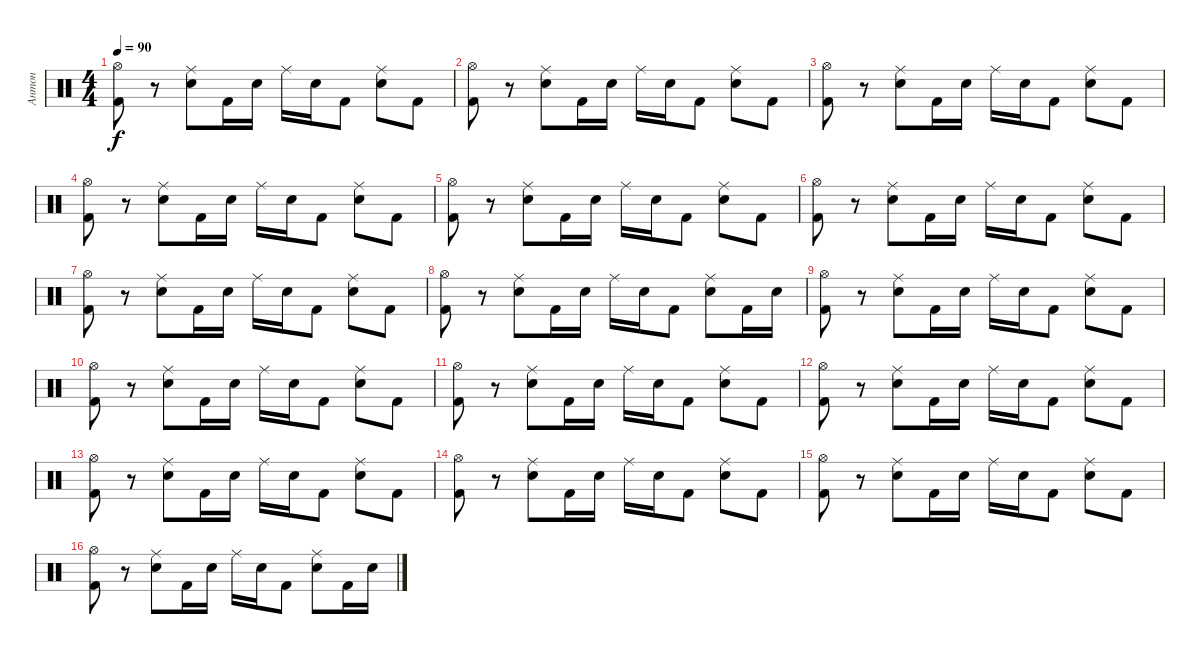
\track ("Антон" "Антон") {instrument percussion}
\staff {score}
\articulation defaults
\ts (4 4)
\tempo 90
\clef neutral
\ks c
("Hi-Hat (open)" "Kick (hit) 2").8{dy f} r.8 ("Ride (middle)" "Electric Snare (hit)").8 "Kick (hit) 2".16 "Electric Snare (hit)".16 "Ride (middle)".16 "Electric Snare (hit)".16 "Kick (hit) 2".8 ("Ride (middle)" "Electric Snare (hit)").8 "Kick (hit) 2".8 |
("Hi-Hat (open)" "Kick (hit) 2").8 r.8 ("Ride (middle)" "Electric Snare (hit)").8 "Kick (hit) 2".16 "Electric Snare (hit)".16 "Ride (middle)".16 "Electric Snare (hit)".16 "Kick (hit) 2".8 ("Ride (middle)" "Electric Snare (hit)").8 "Kick (hit) 2".8 |
("Hi-Hat (open)" "Kick (hit) 2").8 r.8 ("Ride (middle)" "Electric Snare (hit)").8 "Kick (hit) 2".16 "Electric Snare (hit)".16 "Ride (middle)".16 "Electric Snare (hit)".16 "Kick (hit) 2".8 ("Ride (middle)" "Electric Snare (hit)").8 "Kick (hit) 2".8 |
("Hi-Hat (open)" "Kick (hit) 2").8 r.8 ("Ride (middle)" "Electric Snare (hit)").8 "Kick (hit) 2".16 "Electric Snare (hit)".16 "Ride (middle)".16 "Electric Snare (hit)".16 "Kick (hit) 2".8 ("Ride (middle)" "Electric Snare (hit)").8 "Kick (hit) 2".8 |
("Hi-Hat (open)" "Kick (hit) 2").8 r.8 ("Ride (middle)" "Electric Snare (hit)").8 "Kick (hit) 2".16 "Electric Snare (hit)".16 "Ride (middle)".16 "Electric Snare (hit)".16 "Kick (hit) 2".8 ("Ride (middle)" "Electric Snare (hit)").8 "Kick (hit) 2".8 |
("Hi-Hat (open)" "Kick (hit) 2").8 r.8 ("Ride (middle)" "Electric Snare (hit)").8 "Kick (hit) 2".16 "Electric Snare (hit)".16 "Ride (middle)".16 "Electric Snare (hit)".16 "Kick (hit) 2".8 ("Ride (middle)" "Electric Snare (hit)").8 "Kick (hit) 2".8 |
("Hi-Hat (open)" "Kick (hit) 2").8 r.8 ("Ride (middle)" "Electric Snare (hit)").8 "Kick (hit) 2".16 "Electric Snare (hit)".16 "Ride (middle)".16 "Electric Snare (hit)".16 "Kick (hit) 2".8 ("Ride (middle)" "Electric Snare (hit)").8 "Kick (hit) 2".8 |
("Hi-Hat (open)" "Kick (hit) 2").8 r.8 ("Ride (middle)" "Electric Snare (hit)").8 "Kick (hit) 2".16 "Electric Snare (hit)".16 "Ride (middle)".16 "Electric Snare (hit)".16 "Kick (hit) 2".8 ("Ride (middle)" "Electric Snare (hit)").8 "Kick (hit) 2".16 "Electric Snare (hit)".16 |
("Hi-Hat (open)" "Kick (hit) 2").8 r.8 ("Ride (middle)" "Electric Snare (hit)").8 "Kick (hit) 2".16 "Electric Snare (hit)".16 "Ride (middle)".16 "Electric Snare (hit)".16 "Kick (hit) 2".8 ("Ride (middle)" "Electric Snare (hit)").8 "Kick (hit) 2".8 |
("Hi-Hat (open)" "Kick (hit) 2").8 r.8 ("Ride (middle)" "Electric Snare (hit)").8 "Kick (hit) 2".16 "Electric Snare (hit)".16 "Ride (middle)".16 "Electric Snare (hit)".16 "Kick (hit) 2".8 ("Ride (middle)" "Electric Snare (hit)").8 "Kick (hit) 2".8 |
("Hi-Hat (open)" "Kick (hit) 2").8 r.8 ("Ride (middle)" "Electric Snare (hit)").8 "Kick (hit) 2".16 "Electric Snare (hit)".16 "Ride (middle)".16 "Electric Snare (hit)".16 "Kick (hit) 2".8 ("Ride (middle)" "Electric Snare (hit)").8 "Kick (hit) 2".8 |
("Hi-Hat (open)" "Kick (hit) 2").8 r.8 ("Ride (middle)" "Electric Snare (hit)").8 "Kick (hit) 2".16 "Electric Snare (hit)".16 "Ride (middle)".16 "Electric Snare (hit)".16 "Kick (hit) 2".8 ("Ride (middle)" "Electric Snare (hit)").8 "Kick (hit) 2".8 |
("Hi-Hat (open)" "Kick (hit) 2").8 r.8 ("Ride (middle)" "Electric Snare (hit)").8 "Kick (hit) 2".16 "Electric Snare (hit)".16 "Ride (middle)".16 "Electric Snare (hit)".16 "Kick (hit) 2".8 ("Ride (middle)" "Electric Snare (hit)").8 "Kick (hit) 2".8 |
("Hi-Hat (open)" "Kick (hit) 2").8 r.8 ("Ride (middle)" "Electric Snare (hit)").8 "Kick (hit) 2".16 "Electric Snare (hit)".16 "Ride (middle)".16 "Electric Snare (hit)".16 "Kick (hit) 2".8 ("Ride (middle)" "Electric Snare (hit)").8 "Kick (hit) 2".8 |
("Hi-Hat (open)" "Kick (hit) 2").8 r.8 ("Ride (middle)" "Electric Snare (hit)").8 "Kick (hit) 2".16 "Electric Snare (hit)".16 "Ride (middle)".16 "Electric Snare (hit)".16 "Kick (hit) 2".8 ("Ride (middle)" "Electric Snare (hit)").8 "Kick (hit) 2".8 |
("Hi-Hat (open)" "Kick (hit) 2").8 r.8 ("Ride (middle)" "Electric Snare (hit)").8 "Kick (hit) 2".16 "Electric Snare (hit)".16 "Ride (middle)".16 "Electric Snare (hit)".16 "Kick (hit) 2".8 ("Ride (middle)" "Electric Snare (hit)").8 "Kick (hit) 2".16 "Electric Snare (hit)".16
